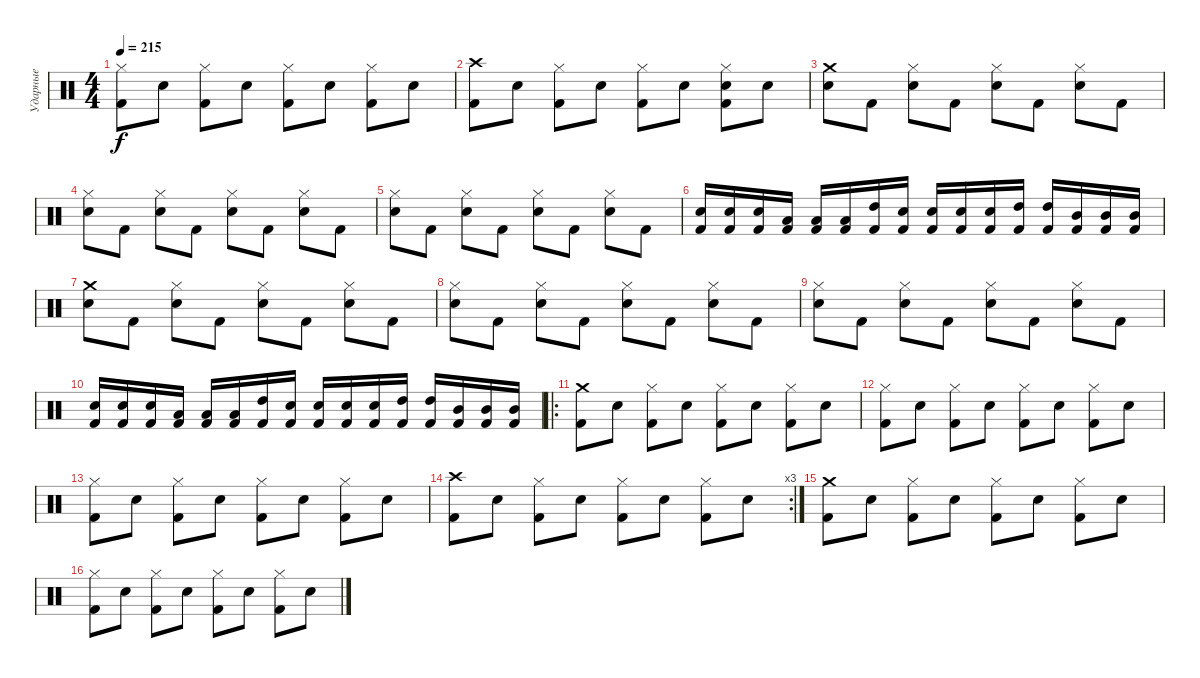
\track ("Ударные" "Ударные") {instrument percussion}
\staff {score}
\articulation defaults
\ts (4 4)
\tempo 215
\clef neutral
\ks c
("Hi-Hat (closed)" "Kick (hit) 2").8{dy f} "Snare (hit) 2".8 ("Hi-Hat (closed)" "Kick (hit) 2").8 "Snare (hit) 2".8 ("Hi-Hat (closed)" "Kick (hit) 2").8 "Snare (hit) 2".8 ("Hi-Hat (closed)" "Kick (hit) 2").8 "Snare (hit) 2".8 |
("Crash high (hit)" "Kick (hit) 2").8 "Snare (hit) 2".8 ("Hi-Hat (closed)" "Kick (hit) 2").8 "Snare (hit) 2".8 ("Hi-Hat (closed)" "Kick (hit) 2").8 "Snare (hit) 2".8 ("Hi-Hat (closed)" "Snare (hit) 2" "Kick (hit) 2").8 "Snare (hit) 2".8 |
("Crash medium (hit)" "Snare (hit) 2").8 "Kick (hit) 2".8 ("Hi-Hat (closed)" "Snare (hit) 2").8 "Kick (hit) 2".8 ("Hi-Hat (closed)" "Snare (hit) 2").8 "Kick (hit) 2".8 ("Hi-Hat (closed)" "Snare (hit) 2").8 "Kick (hit) 2".8 |
("Hi-Hat (closed)" "Snare (hit) 2").8 "Kick (hit) 2".8 ("Hi-Hat (closed)" "Snare (hit) 2").8 "Kick (hit) 2".8 ("Hi-Hat (closed)" "Snare (hit) 2").8 "Kick (hit) 2".8 ("Hi-Hat (closed)" "Snare (hit) 2").8 "Kick (hit) 2".8 |
("Hi-Hat (closed)" "Snare (hit) 2").8 "Kick (hit) 2".8 ("Hi-Hat (closed)" "Snare (hit) 2").8 "Kick (hit) 2".8 ("Hi-Hat (closed)" "Snare (hit) 2").8 "Kick (hit) 2".8 ("Hi-Hat (closed)" "Snare (hit) 2").8 "Kick (hit) 2".8 |
("Snare (hit) 2" "Kick (hit) 2").16 ("Snare (hit) 2" "Kick (hit) 2").16 ("Snare (hit) 2" "Kick (hit) 2").16 ("Low Tom (hit)" "Kick (hit) 2").16 ("Low Tom (hit)" "Kick (hit) 2").16 ("Low Tom (hit)" "Kick (hit) 2").16 ("High Tom (hit)" "Kick (hit) 2").16 ("Snare (hit) 2" "Kick (hit) 2").16 ("Snare (hit) 2" "Kick (hit) 2").16 ("Snare (hit) 2" "Kick (hit) 2").16 ("Snare (hit) 2" "Kick (hit) 2").16 ("High Tom (hit)" "Kick (hit) 2").16 ("High Tom (hit)" "Kick (hit) 2").16 ("Mid Tom (hit)" "Kick (hit) 2").16 ("Mid Tom (hit)" "Kick (hit) 2").16 ("Mid Tom (hit)" "Kick (hit) 2").16 |
("Crash medium (hit)" "Snare (hit) 2").8 "Kick (hit) 2".8 ("Hi-Hat (closed)" "Snare (hit) 2").8 "Kick (hit) 2".8 ("Hi-Hat (closed)" "Snare (hit) 2").8 "Kick (hit) 2".8 ("Hi-Hat (closed)" "Snare (hit) 2").8 "Kick (hit) 2".8 |
("Hi-Hat (closed)" "Snare (hit) 2").8 "Kick (hit) 2".8 ("Hi-Hat (closed)" "Snare (hit) 2").8 "Kick (hit) 2".8 ("Hi-Hat (closed)" "Snare (hit) 2").8 "Kick (hit) 2".8 ("Hi-Hat (closed)" "Snare (hit) 2").8 "Kick (hit) 2".8 |
("Hi-Hat (closed)" "Snare (hit) 2").8 "Kick (hit) 2".8 ("Hi-Hat (closed)" "Snare (hit) 2").8 "Kick (hit) 2".8 ("Hi-Hat (closed)" "Snare (hit) 2").8 "Kick (hit) 2".8 ("Hi-Hat (closed)" "Snare (hit) 2").8 "Kick (hit) 2".8 |
("Snare (hit) 2" "Kick (hit) 2").16 ("Snare (hit) 2" "Kick (hit) 2").16 ("Snare (hit) 2" "Kick (hit) 2").16 ("Low Tom (hit)" "Kick (hit) 2").16 ("Low Tom (hit)" "Kick (hit) 2").16 ("Low Tom (hit)" "Kick (hit) 2").16 ("High Tom (hit)" "Kick (hit) 2").16 ("Snare (hit) 2" "Kick (hit) 2").16 ("Snare (hit) 2" "Kick (hit) 2").16 ("Snare (hit) 2" "Kick (hit) 2").16 ("Snare (hit) 2" "Kick (hit) 2").16 ("High Tom (hit)" "Kick (hit) 2").16 ("High Tom (hit)" "Kick (hit) 2").16 ("Mid Tom (hit)" "Kick (hit) 2").16 ("Mid Tom (hit)" "Kick (hit) 2").16 ("Mid Tom (hit)" "Kick (hit) 2").16 |
\ro
("Crash medium (hit)" "Kick (hit) 2").8 "Snare (hit) 2".8 ("Hi-Hat (closed)" "Kick (hit) 2").8 "Snare (hit) 2".8 ("Hi-Hat (closed)" "Kick (hit) 2").8 "Snare (hit) 2".8 ("Hi-Hat (closed)" "Kick (hit) 2").8 "Snare (hit) 2".8 |
("Hi-Hat (closed)" "Kick (hit) 2").8 "Snare (hit) 2".8 ("Hi-Hat (closed)" "Kick (hit) 2").8 "Snare (hit) 2".8 ("Hi-Hat (closed)" "Kick (hit) 2").8 "Snare (hit) 2".8 ("Hi-Hat (closed)" "Kick (hit) 2").8 "Snare (hit) 2".8 |
("Hi-Hat (closed)" "Kick (hit) 2").8 "Snare (hit) 2".8 ("Hi-Hat (closed)" "Kick (hit) 2").8 "Snare (hit) 2".8 ("Hi-Hat (closed)" "Kick (hit) 2").8 "Snare (hit) 2".8 ("Hi-Hat (closed)" "Kick (hit) 2").8 "Snare (hit) 2".8 |
\rc 3
("Crash high (hit)" "Kick (hit) 2").8 "Snare (hit) 2".8 ("Hi-Hat (closed)" "Kick (hit) 2").8 "Snare (hit) 2".8 ("Hi-Hat (closed)" "Kick (hit) 2").8 "Snare (hit) 2".8 ("Hi-Hat (closed)" "Kick (hit) 2").8 "Snare (hit) 2".8 |
("Crash medium (hit)" "Kick (hit) 2").8 "Snare (hit) 2".8 ("Hi-Hat (closed)" "Kick (hit) 2").8 "Snare (hit) 2".8 ("Hi-Hat (closed)" "Kick (hit) 2").8 "Snare (hit) 2".8 ("Hi-Hat (closed)" "Kick (hit) 2").8 "Snare (hit) 2".8 |
("Hi-Hat (closed)" "Kick (hit) 2").8 "Snare (hit) 2".8 ("Hi-Hat (closed)" "Kick (hit) 2").8 "Snare (hit) 2".8 ("Hi-Hat (closed)" "Kick (hit) 2").8 "Snare (hit) 2".8 ("Hi-Hat (closed)" "Kick (hit) 2").8 "Snare (hit) 2".8
